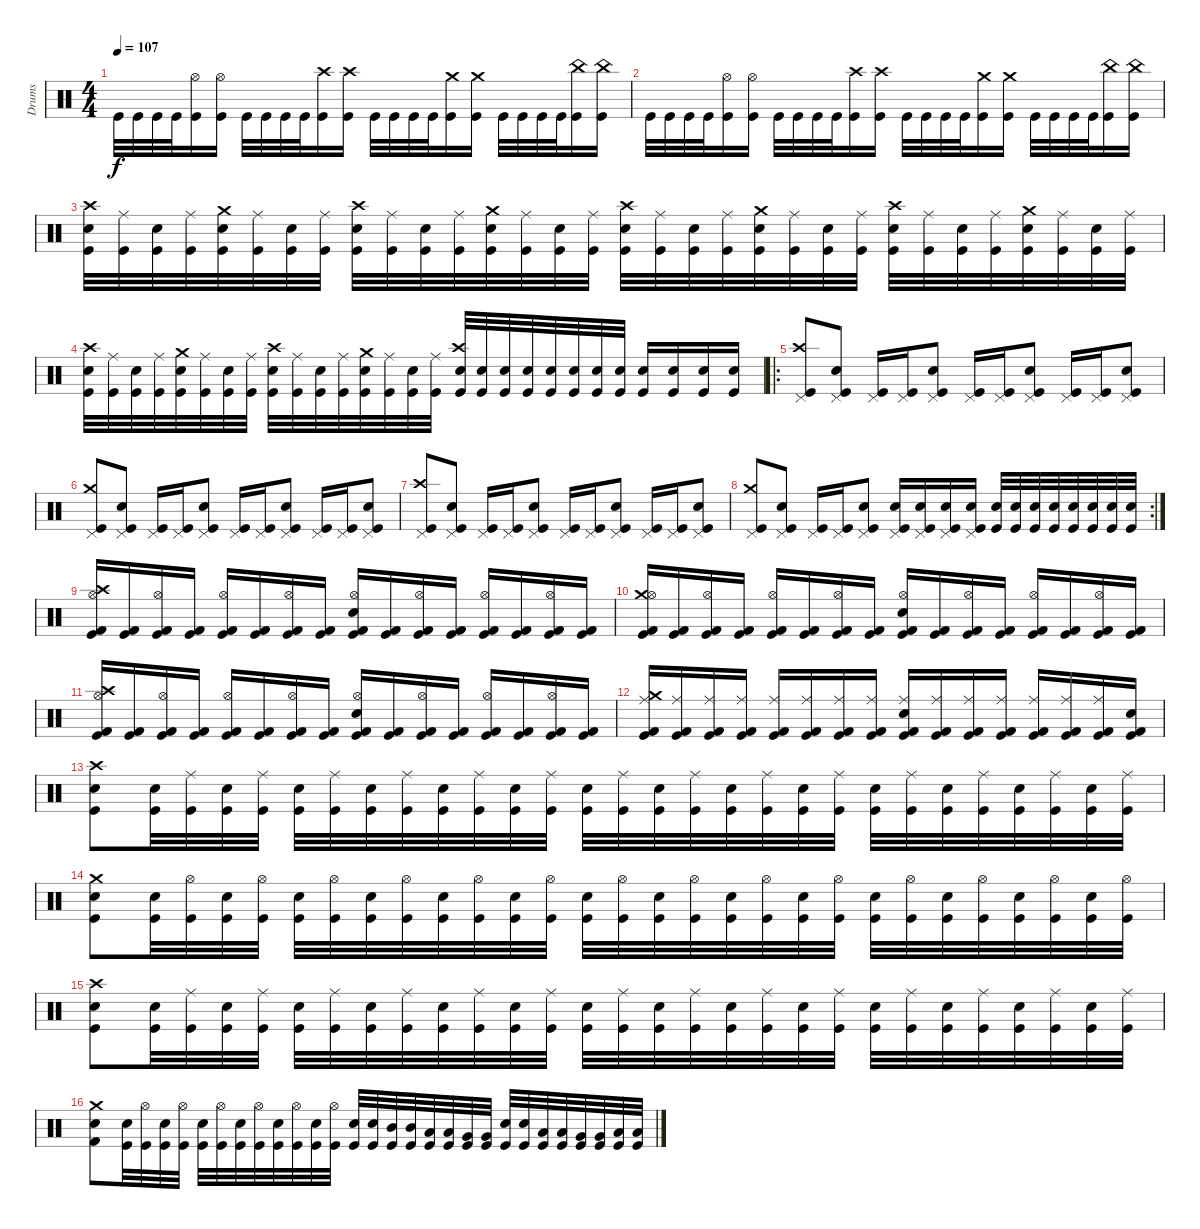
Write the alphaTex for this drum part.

\track ("Drums" "Drums") {instrument percussion}
\staff
\articulation defaults
\ts (4 4)
\tempo 107
\clef neutral
\ks c "Kick (hit)".32{dy f} "Kick (hit)".32 "Kick (hit)".32 "Kick (hit)".32
("Hi-Hat (open)" "Kick (hit)").16 ("Hi-Hat (open)" "Kick (hit)").16 "Kick (hit)".32 "Kick (hit)".32 "Kick (hit)".32 "Kick (hit)".32 ("Crash high (hit)" "Kick (hit)").16 ("Crash high (hit)" "Kick (hit)").16 "Kick (hit)".32 "Kick (hit)".32 "Kick (hit)".32 "Kick (hit)".32 ("Crash medium (hit)" "Kick (hit)").16 ("Crash medium (hit)" "Kick (hit)").16 "Kick (hit)".32 "Kick (hit)".32 "Kick (hit)".32 "Kick (hit)".32 ("China (hit)" "Kick (hit)").16 ("China (hit)" "Kick (hit)").16 |
"Kick (hit)".32 "Kick (hit)".32 "Kick (hit)".32 "Kick (hit)".32 ("Hi-Hat (open)" "Kick (hit)").16 ("Hi-Hat (open)" "Kick (hit)").16 "Kick (hit)".32 "Kick (hit)".32 "Kick (hit)".32 "Kick (hit)".32 ("Crash high (hit)" "Kick (hit)").16 ("Crash high (hit)" "Kick (hit)").16 "Kick (hit)".32 "Kick (hit)".32 "Kick (hit)".32 "Kick (hit)".32 ("Crash medium (hit)" "Kick (hit)").16 ("Crash medium (hit)" "Kick (hit)").16 "Kick (hit)".32 "Kick (hit)".32 "Kick (hit)".32 "Kick (hit)".32 ("China (hit)" "Kick (hit)").16 ("China (hit)" "Kick (hit)").16 |
("Crash high (hit)" "Electric Snare (hit)" "Kick (hit)").32 ("Ride (middle)" "Kick (hit)").32 ("Electric Snare (hit)" "Kick (hit)").32 ("Ride (middle)" "Kick (hit)").32 ("Crash medium (hit)" "Electric Snare (hit)" "Kick (hit)").32 ("Ride (middle)" "Kick (hit)").32 ("Electric Snare (hit)" "Kick (hit)").32 ("Ride (middle)" "Kick (hit)").32 ("Crash high (hit)" "Electric Snare (hit)" "Kick (hit)").32 ("Ride (middle)" "Kick (hit)").32 ("Electric Snare (hit)" "Kick (hit)").32 ("Ride (middle)" "Kick (hit)").32 ("Crash medium (hit)" "Electric Snare (hit)" "Kick (hit)").32 ("Ride (middle)" "Kick (hit)").32 ("Electric Snare (hit)" "Kick (hit)").32 ("Ride (middle)" "Kick (hit)").32 ("Crash high (hit)" "Electric Snare (hit)" "Kick (hit)").32 ("Ride (middle)" "Kick (hit)").32 ("Electric Snare (hit)" "Kick (hit)").32 ("Ride (middle)" "Kick (hit)").32 ("Crash medium (hit)" "Electric Snare (hit)" "Kick (hit)").32 ("Ride (middle)" "Kick (hit)").32 ("Electric Snare (hit)" "Kick (hit)").32 ("Ride (middle)" "Kick (hit)").32 ("Crash high (hit)" "Electric Snare (hit)" "Kick (hit)").32 ("Ride (middle)" "Kick (hit)").32 ("Electric Snare (hit)" "Kick (hit)").32 ("Ride (middle)" "Kick (hit)").32 ("Crash medium (hit)" "Electric Snare (hit)" "Kick (hit)").32 ("Ride (middle)" "Kick (hit)").32 ("Electric Snare (hit)" "Kick (hit)").32 ("Ride (middle)" "Kick (hit)").32 |
("Crash high (hit)" "Electric Snare (hit)" "Kick (hit)").32 ("Ride (middle)" "Kick (hit)").32 ("Electric Snare (hit)" "Kick (hit)").32 ("Ride (middle)" "Kick (hit)").32 ("Crash medium (hit)" "Electric Snare (hit)" "Kick (hit)").32 ("Ride (middle)" "Kick (hit)").32 ("Electric Snare (hit)" "Kick (hit)").32 ("Ride (middle)" "Kick (hit)").32 ("Crash high (hit)" "Electric Snare (hit)" "Kick (hit)").32 ("Ride (middle)" "Kick (hit)").32 ("Electric Snare (hit)" "Kick (hit)").32 ("Ride (middle)" "Kick (hit)").32 ("Crash medium (hit)" "Electric Snare (hit)" "Kick (hit)").32 ("Ride (middle)" "Kick (hit)").32 ("Electric Snare (hit)" "Kick (hit)").32 ("Ride (middle)" "Kick (hit)").32 ("Crash high (hit)" "Electric Snare (hit)" "Kick (hit)").32 ("Electric Snare (hit)" "Kick (hit)").32 ("Electric Snare (hit)" "Kick (hit)").32 ("Electric Snare (hit)" "Kick (hit)").32 ("Electric Snare (hit)" "Kick (hit)").32 ("Electric Snare (hit)" "Kick (hit)").32 ("Electric Snare (hit)" "Kick (hit)").32 ("Electric Snare (hit)" "Kick (hit)").32 ("Electric Snare (hit)" "Kick (hit)").16 ("Electric Snare (hit)" "Kick (hit)").16 ("Electric Snare (hit)" "Kick (hit)").16 ("Electric Snare (hit)" "Kick (hit)").16 |
\ro
("Crash high (hit)" "Pedal Hi-Hat (hit)" "Kick (hit)").8 ("Pedal Hi-Hat (hit)" "Electric Snare (hit)" "Kick (hit)").8 ("Pedal Hi-Hat (hit)" "Kick (hit)").16 ("Pedal Hi-Hat (hit)" "Kick (hit)").16 ("Pedal Hi-Hat (hit)" "Electric Snare (hit)" "Kick (hit)").8 ("Pedal Hi-Hat (hit)" "Kick (hit)").16 ("Pedal Hi-Hat (hit)" "Kick (hit)").16 ("Pedal Hi-Hat (hit)" "Electric Snare (hit)" "Kick (hit)").8 ("Pedal Hi-Hat (hit)" "Kick (hit)").16 ("Pedal Hi-Hat (hit)" "Kick (hit)").16 ("Pedal Hi-Hat (hit)" "Electric Snare (hit)" "Kick (hit)").8 |
("Crash medium (hit)" "Pedal Hi-Hat (hit)" "Kick (hit)").8 ("Pedal Hi-Hat (hit)" "Electric Snare (hit)" "Kick (hit)").8 ("Pedal Hi-Hat (hit)" "Kick (hit)").16 ("Pedal Hi-Hat (hit)" "Kick (hit)").16 ("Pedal Hi-Hat (hit)" "Electric Snare (hit)" "Kick (hit)").8 ("Pedal Hi-Hat (hit)" "Kick (hit)").16 ("Pedal Hi-Hat (hit)" "Kick (hit)").16 ("Pedal Hi-Hat (hit)" "Electric Snare (hit)" "Kick (hit)").8 ("Pedal Hi-Hat (hit)" "Kick (hit)").16 ("Pedal Hi-Hat (hit)" "Kick (hit)").16 ("Pedal Hi-Hat (hit)" "Electric Snare (hit)" "Kick (hit)").8 |
("Crash high (hit)" "Pedal Hi-Hat (hit)" "Kick (hit)").8 ("Pedal Hi-Hat (hit)" "Electric Snare (hit)" "Kick (hit)").8 ("Pedal Hi-Hat (hit)" "Kick (hit)").16 ("Pedal Hi-Hat (hit)" "Kick (hit)").16 ("Pedal Hi-Hat (hit)" "Electric Snare (hit)" "Kick (hit)").8 ("Pedal Hi-Hat (hit)" "Kick (hit)").16 ("Pedal Hi-Hat (hit)" "Kick (hit)").16 ("Pedal Hi-Hat (hit)" "Electric Snare (hit)" "Kick (hit)").8 ("Pedal Hi-Hat (hit)" "Kick (hit)").16 ("Pedal Hi-Hat (hit)" "Kick (hit)").16 ("Pedal Hi-Hat (hit)" "Electric Snare (hit)" "Kick (hit)").8 |
\rc 2
("Crash medium (hit)" "Pedal Hi-Hat (hit)" "Kick (hit)").8 ("Pedal Hi-Hat (hit)" "Electric Snare (hit)" "Kick (hit)").8 ("Pedal Hi-Hat (hit)" "Kick (hit)").16 ("Pedal Hi-Hat (hit)" "Kick (hit)").16 ("Pedal Hi-Hat (hit)" "Electric Snare (hit)" "Kick (hit)").8 ("Pedal Hi-Hat (hit)" "Electric Snare (hit)" "Kick (hit)").16 ("Pedal Hi-Hat (hit)" "Electric Snare (hit)" "Kick (hit)").16 ("Pedal Hi-Hat (hit)" "Electric Snare (hit)" "Kick (hit)").16 ("Pedal Hi-Hat (hit)" "Electric Snare (hit)" "Kick (hit)").16 ("Electric Snare (hit)" "Kick (hit)").32 ("Electric Snare (hit)" "Kick (hit)").32 ("Electric Snare (hit)" "Kick (hit)").32 ("Electric Snare (hit)" "Kick (hit)").32 ("Electric Snare (hit)" "Kick (hit)").32 ("Electric Snare (hit)" "Kick (hit)").32 ("Electric Snare (hit)" "Kick (hit)").32 ("Electric Snare (hit)" "Kick (hit)").32 |
("Crash high (hit)" "Hi-Hat (open)" "Kick (hit) 2" "Kick (hit)").16 ("Kick (hit) 2" "Kick (hit)").16 ("Hi-Hat (open)" "Kick (hit) 2" "Kick (hit)").16 ("Kick (hit) 2" "Kick (hit)").16 ("Hi-Hat (open)" "Kick (hit) 2" "Kick (hit)").16 ("Kick (hit) 2" "Kick (hit)").16 ("Hi-Hat (open)" "Kick (hit) 2" "Kick (hit)").16 ("Kick (hit) 2" "Kick (hit)").16 ("Hi-Hat (open)" "Electric Snare (hit)" "Kick (hit) 2" "Kick (hit)").16 ("Kick (hit) 2" "Kick (hit)").16 ("Hi-Hat (open)" "Kick (hit) 2" "Kick (hit)").16 ("Kick (hit) 2" "Kick (hit)").16 ("Hi-Hat (open)" "Kick (hit) 2" "Kick (hit)").16 ("Kick (hit) 2" "Kick (hit)").16 ("Hi-Hat (open)" "Kick (hit) 2" "Kick (hit)").16 ("Kick (hit) 2" "Kick (hit)").16 |
("Crash medium (hit)" "Hi-Hat (open)" "Kick (hit) 2" "Kick (hit)").16 ("Kick (hit) 2" "Kick (hit)").16 ("Hi-Hat (open)" "Kick (hit) 2" "Kick (hit)").16 ("Kick (hit) 2" "Kick (hit)").16 ("Hi-Hat (open)" "Kick (hit) 2" "Kick (hit)").16 ("Kick (hit) 2" "Kick (hit)").16 ("Hi-Hat (open)" "Kick (hit) 2" "Kick (hit)").16 ("Kick (hit) 2" "Kick (hit)").16 ("Hi-Hat (open)" "Electric Snare (hit)" "Kick (hit) 2" "Kick (hit)").16 ("Kick (hit) 2" "Kick (hit)").16 ("Hi-Hat (open)" "Kick (hit) 2" "Kick (hit)").16 ("Kick (hit) 2" "Kick (hit)").16 ("Hi-Hat (open)" "Kick (hit) 2" "Kick (hit)").16 ("Kick (hit) 2" "Kick (hit)").16 ("Hi-Hat (open)" "Kick (hit) 2" "Kick (hit)").16 ("Kick (hit) 2" "Kick (hit)").16 |
("Crash high (hit)" "Hi-Hat (open)" "Kick (hit) 2" "Kick (hit)").16 ("Kick (hit) 2" "Kick (hit)").16 ("Hi-Hat (open)" "Kick (hit) 2" "Kick (hit)").16 ("Kick (hit) 2" "Kick (hit)").16 ("Hi-Hat (open)" "Kick (hit) 2" "Kick (hit)").16 ("Kick (hit) 2" "Kick (hit)").16 ("Hi-Hat (open)" "Kick (hit) 2" "Kick (hit)").16 ("Kick (hit) 2" "Kick (hit)").16 ("Hi-Hat (open)" "Electric Snare (hit)" "Kick (hit) 2" "Kick (hit)").16 ("Kick (hit) 2" "Kick (hit)").16 ("Hi-Hat (open)" "Kick (hit) 2" "Kick (hit)").16 ("Kick (hit) 2" "Kick (hit)").16 ("Hi-Hat (open)" "Kick (hit) 2" "Kick (hit)").16 ("Kick (hit) 2" "Kick (hit)").16 ("Hi-Hat (open)" "Kick (hit) 2" "Kick (hit)").16 ("Kick (hit) 2" "Kick (hit)").16 |
("Crash medium (hit)" "Ride (middle)" "Kick (hit) 2" "Kick (hit)").16 ("Ride (middle)" "Kick (hit) 2" "Kick (hit)").16 ("Ride (middle)" "Kick (hit) 2" "Kick (hit)").16 ("Ride (middle)" "Kick (hit) 2" "Kick (hit)").16 ("Ride (middle)" "Kick (hit) 2" "Kick (hit)").16 ("Ride (middle)" "Kick (hit) 2" "Kick (hit)").16 ("Ride (middle)" "Kick (hit) 2" "Kick (hit)").16 ("Ride (middle)" "Kick (hit) 2" "Kick (hit)").16 ("Ride (middle)" "Electric Snare (hit)" "Kick (hit) 2" "Kick (hit)").16 ("Ride (middle)" "Kick (hit) 2" "Kick (hit)").16 ("Ride (middle)" "Kick (hit) 2" "Kick (hit)").16 ("Ride (middle)" "Kick (hit) 2" "Kick (hit)").16 ("Ride (middle)" "Kick (hit) 2" "Kick (hit)").16 ("Ride (middle)" "Kick (hit) 2" "Kick (hit)").16 ("Ride (middle)" "Kick (hit) 2" "Kick (hit)").16 ("Snare (hit)" "Kick (hit) 2" "Kick (hit)").16 |
("Crash high (hit)" "Electric Snare (hit)" "Kick (hit)").8 ("Electric Snare (hit)" "Kick (hit)").32 ("Ride (middle)" "Kick (hit)").32 ("Electric Snare (hit)" "Kick (hit)").32 ("Ride (middle)" "Kick (hit)").32 ("Electric Snare (hit)" "Kick (hit)").32 ("Ride (middle)" "Kick (hit)").32 ("Electric Snare (hit)" "Kick (hit)").32 ("Ride (middle)" "Kick (hit)").32 ("Electric Snare (hit)" "Kick (hit)").32 ("Ride (middle)" "Kick (hit)").32 ("Electric Snare (hit)" "Kick (hit)").32 ("Ride (middle)" "Kick (hit)").32 ("Electric Snare (hit)" "Kick (hit)").32 ("Ride (middle)" "Kick (hit)").32 ("Electric Snare (hit)" "Kick (hit)").32 ("Ride (middle)" "Kick (hit)").32 ("Electric Snare (hit)" "Kick (hit)").32 ("Ride (middle)" "Kick (hit)").32 ("Electric Snare (hit)" "Kick (hit)").32 ("Ride (middle)" "Kick (hit)").32 ("Electric Snare (hit)" "Kick (hit)").32 ("Ride (middle)" "Kick (hit)").32 ("Electric Snare (hit)" "Kick (hit)").32 ("Ride (middle)" "Kick (hit)").32 ("Electric Snare (hit)" "Kick (hit)").32 ("Ride (middle)" "Kick (hit)").32 ("Electric Snare (hit)" "Kick (hit)").32 ("Ride (middle)" "Kick (hit)").32 |
("Crash medium (hit)" "Electric Snare (hit)" "Kick (hit)").8 ("Electric Snare (hit)" "Kick (hit)").32 ("Hi-Hat (open)" "Kick (hit)").32 ("Electric Snare (hit)" "Kick (hit)").32 ("Hi-Hat (open)" "Kick (hit)").32 ("Electric Snare (hit)" "Kick (hit)").32 ("Hi-Hat (open)" "Kick (hit)").32 ("Electric Snare (hit)" "Kick (hit)").32 ("Hi-Hat (open)" "Kick (hit)").32 ("Electric Snare (hit)" "Kick (hit)").32 ("Hi-Hat (open)" "Kick (hit)").32 ("Electric Snare (hit)" "Kick (hit)").32 ("Hi-Hat (open)" "Kick (hit)").32 ("Electric Snare (hit)" "Kick (hit)").32 ("Hi-Hat (open)" "Kick (hit)").32 ("Electric Snare (hit)" "Kick (hit)").32 ("Hi-Hat (open)" "Kick (hit)").32 ("Electric Snare (hit)" "Kick (hit)").32 ("Hi-Hat (open)" "Kick (hit)").32 ("Electric Snare (hit)" "Kick (hit)").32 ("Hi-Hat (open)" "Kick (hit)").32 ("Electric Snare (hit)" "Kick (hit)").32 ("Hi-Hat (open)" "Kick (hit)").32 ("Electric Snare (hit)" "Kick (hit)").32 ("Hi-Hat (open)" "Kick (hit)").32 ("Electric Snare (hit)" "Kick (hit)").32 ("Hi-Hat (open)" "Kick (hit)").32 ("Electric Snare (hit)" "Kick (hit)").32 ("Hi-Hat (open)" "Kick (hit)").32 |
("Crash high (hit)" "Electric Snare (hit)" "Kick (hit)").8 ("Electric Snare (hit)" "Kick (hit)").32 ("Ride (middle)" "Kick (hit)").32 ("Electric Snare (hit)" "Kick (hit)").32 ("Ride (middle)" "Kick (hit)").32 ("Electric Snare (hit)" "Kick (hit)").32 ("Ride (middle)" "Kick (hit)").32 ("Electric Snare (hit)" "Kick (hit)").32 ("Ride (middle)" "Kick (hit)").32 ("Electric Snare (hit)" "Kick (hit)").32 ("Ride (middle)" "Kick (hit)").32 ("Electric Snare (hit)" "Kick (hit)").32 ("Ride (middle)" "Kick (hit)").32 ("Electric Snare (hit)" "Kick (hit)").32 ("Ride (middle)" "Kick (hit)").32 ("Electric Snare (hit)" "Kick (hit)").32 ("Ride (middle)" "Kick (hit)").32 ("Electric Snare (hit)" "Kick (hit)").32 ("Ride (middle)" "Kick (hit)").32 ("Electric Snare (hit)" "Kick (hit)").32 ("Ride (middle)" "Kick (hit)").32 ("Electric Snare (hit)" "Kick (hit)").32 ("Ride (middle)" "Kick (hit)").32 ("Electric Snare (hit)" "Kick (hit)").32 ("Ride (middle)" "Kick (hit)").32 ("Electric Snare (hit)" "Kick (hit)").32 ("Ride (middle)" "Kick (hit)").32 ("Electric Snare (hit)" "Kick (hit)").32 ("Ride (middle)" "Kick (hit)").32 |
("Crash medium (hit)" "Electric Snare (hit)" "Kick (hit) 2").8 ("Electric Snare (hit)" "Kick (hit)").32 ("Hi-Hat (open)" "Kick (hit)").32 ("Electric Snare (hit)" "Kick (hit)").32 ("Hi-Hat (open)" "Kick (hit)").32 ("Electric Snare (hit)" "Kick (hit)").32 ("Hi-Hat (open)" "Kick (hit)").32 ("Electric Snare (hit)" "Kick (hit)").32 ("Hi-Hat (open)" "Kick (hit)").32 ("Electric Snare (hit)" "Kick (hit)").32 ("Hi-Hat (open)" "Kick (hit)").32 ("Electric Snare (hit)" "Kick (hit)").32 ("Hi-Hat (open)" "Kick (hit)").32 ("Electric Snare (hit)" "Kick (hit)").32 ("Electric Snare (hit)" "Kick (hit)").32 ("Mid Tom (hit)" "Kick (hit)").32 ("Mid Tom (hit)" "Kick (hit)").32 ("Low Tom (hit)" "Kick (hit)").32 ("Low Tom (hit)" "Kick (hit)").32 ("Very Low Tom (hit)" "Kick (hit)").32 ("Very Low Tom (hit)" "Kick (hit)").32 ("Electric Snare (hit)" "Kick (hit)").32 ("Electric Snare (hit)" "Kick (hit)").32 ("Low Tom (hit)" "Kick (hit)").32 ("Low Tom (hit)" "Kick (hit)").32 ("Very Low Tom (hit)" "Kick (hit)").32 ("Very Low Tom (hit)" "Kick (hit)").32 ("Low Floor Tom (hit)" "Kick (hit)").32 ("Low Floor Tom (hit)" "Kick (hit)").32
